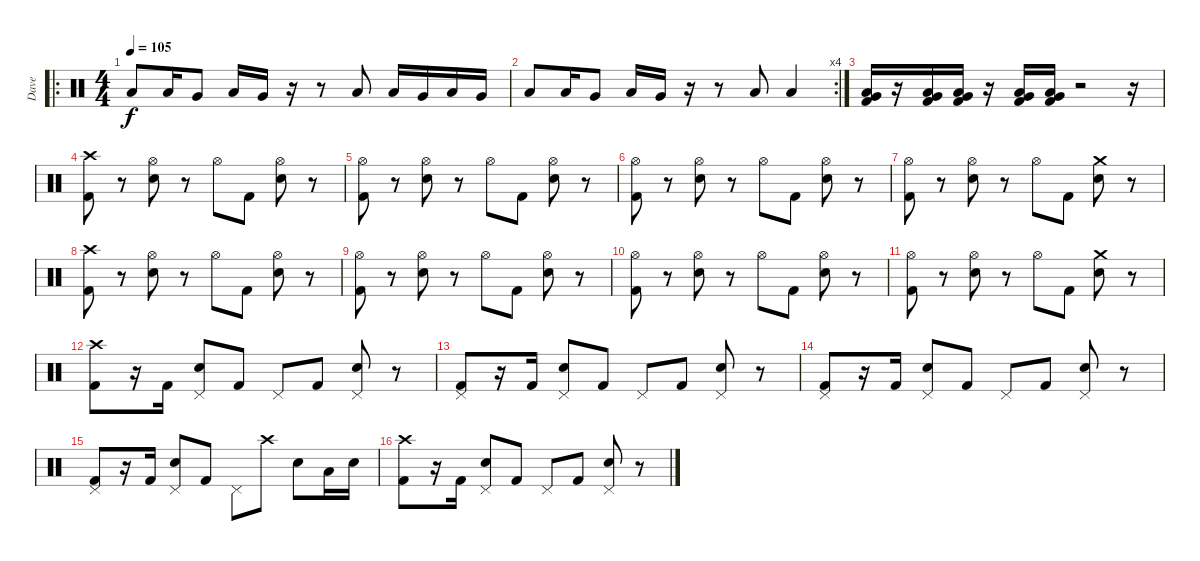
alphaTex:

\track ("Dave" "Dave") {instrument percussion}
\staff {score}
\articulation defaults
\ro
\ts (4 4)
\tempo 105
\clef neutral
\ks c "Low Floor Tom (hit)".8{dy f} "Low Floor Tom (hit)".16 "Very Low Tom (hit)".8 "Low Floor Tom (hit)".16 "Very Low Tom (hit)".16
r.16 r.8 "Low Floor Tom (hit)".8 "Low Floor Tom (hit)".16 "Very Low Tom (hit)".16 "Low Floor Tom (hit)".16 "Very Low Tom (hit)".16 |
\rc 4 "Low Floor Tom (hit)".8 "Low Floor Tom (hit)".16 "Very Low Tom (hit)".8 "Low Floor Tom (hit)".16 "Very Low Tom (hit)".16
r.16 r.8 "Low Floor Tom (hit)".8 "Low Floor Tom (hit)".4 |
("Very Low Tom (hit)" "Low Floor Tom (hit)" "Kick (hit) 2").16 r.16 ("Low Floor Tom (hit)" "Very Low Tom (hit)" "Kick (hit) 2").16 ("Low Floor Tom (hit)" "Very Low Tom (hit)" "Kick (hit) 2").16 r.16 ("Low Floor Tom (hit)" "Very Low Tom (hit)" "Kick (hit) 2").16 ("Low Floor Tom (hit)" "Very Low Tom (hit)" "Kick (hit) 2").16 r.2 r.16 |
("Crash high (hit)" "Kick (hit) 2").8 r.8 ("Hi-Hat (open)" "Snare (hit) 2").8 r.8 "Hi-Hat (open)".8 "Kick (hit) 2".8 ("Hi-Hat (open)" "Snare (hit) 2").8 r.8 |
("Hi-Hat (open)" "Kick (hit) 2").8 r.8 ("Hi-Hat (open)" "Snare (hit) 2").8 r.8 "Hi-Hat (open)".8 "Kick (hit) 2".8 ("Hi-Hat (open)" "Snare (hit) 2").8 r.8 |
("Hi-Hat (open)" "Kick (hit) 2").8 r.8 ("Hi-Hat (open)" "Snare (hit) 2").8 r.8 "Hi-Hat (open)".8 "Kick (hit) 2".8 ("Hi-Hat (open)" "Snare (hit) 2").8 r.8 |
("Hi-Hat (open)" "Kick (hit) 2").8 r.8 ("Hi-Hat (open)" "Snare (hit) 2").8 r.8 "Hi-Hat (open)".8 "Kick (hit) 2".8 ("Crash medium (hit)" "Snare (hit) 2").8 r.8 |
("Crash high (hit)" "Kick (hit) 2").8 r.8 ("Hi-Hat (open)" "Snare (hit) 2").8 r.8 "Hi-Hat (open)".8 "Kick (hit) 2".8 ("Hi-Hat (open)" "Snare (hit) 2").8 r.8 |
("Hi-Hat (open)" "Kick (hit) 2").8 r.8 ("Hi-Hat (open)" "Snare (hit) 2").8 r.8 "Hi-Hat (open)".8 "Kick (hit) 2".8 ("Hi-Hat (open)" "Snare (hit) 2").8 r.8 |
("Hi-Hat (open)" "Kick (hit) 2").8 r.8 ("Hi-Hat (open)" "Snare (hit) 2").8 r.8 "Hi-Hat (open)".8 "Kick (hit) 2".8 ("Hi-Hat (open)" "Snare (hit) 2").8 r.8 |
("Hi-Hat (open)" "Kick (hit) 2").8 r.8 ("Hi-Hat (open)" "Snare (hit) 2").8 r.8 "Hi-Hat (open)".8 "Kick (hit) 2".8 ("Crash medium (hit)" "Snare (hit) 2").8 r.8 |
("Crash high (hit)" "Kick (hit) 2").8 r.16 "Kick (hit) 2".16 ("Pedal Hi-Hat (hit)" "Snare (hit) 2").8 "Kick (hit) 2".8 "Pedal Hi-Hat (hit)".8 "Kick (hit) 2".8 ("Pedal Hi-Hat (hit)" "Snare (hit) 2").8 r.8 |
("Pedal Hi-Hat (hit)" "Kick (hit) 2").8 r.16 "Kick (hit) 2".16 ("Pedal Hi-Hat (hit)" "Snare (hit) 2").8 "Kick (hit) 2".8 "Pedal Hi-Hat (hit)".8 "Kick (hit) 2".8 ("Pedal Hi-Hat (hit)" "Snare (hit) 2").8 r.8 |
("Pedal Hi-Hat (hit)" "Kick (hit) 2").8 r.16 "Kick (hit) 2".16 ("Pedal Hi-Hat (hit)" "Snare (hit) 2").8 "Kick (hit) 2".8 "Pedal Hi-Hat (hit)".8 "Kick (hit) 2".8 ("Pedal Hi-Hat (hit)" "Snare (hit) 2").8 r.8 |
("Pedal Hi-Hat (hit)" "Kick (hit) 2").8 r.16 "Kick (hit) 2".16 ("Pedal Hi-Hat (hit)" "Snare (hit) 2").8 "Kick (hit) 2".8 "Pedal Hi-Hat (hit)".8 "Crash high (hit)".8 "Snare (hit) 2".8 "Low Floor Tom (hit)".16 "Snare (hit) 2".16 |
("Crash high (hit)" "Kick (hit) 2").8 r.16 "Kick (hit) 2".16 ("Pedal Hi-Hat (hit)" "Snare (hit) 2").8 "Kick (hit) 2".8 "Pedal Hi-Hat (hit)".8 "Kick (hit) 2".8 ("Pedal Hi-Hat (hit)" "Snare (hit) 2").8 r.8
